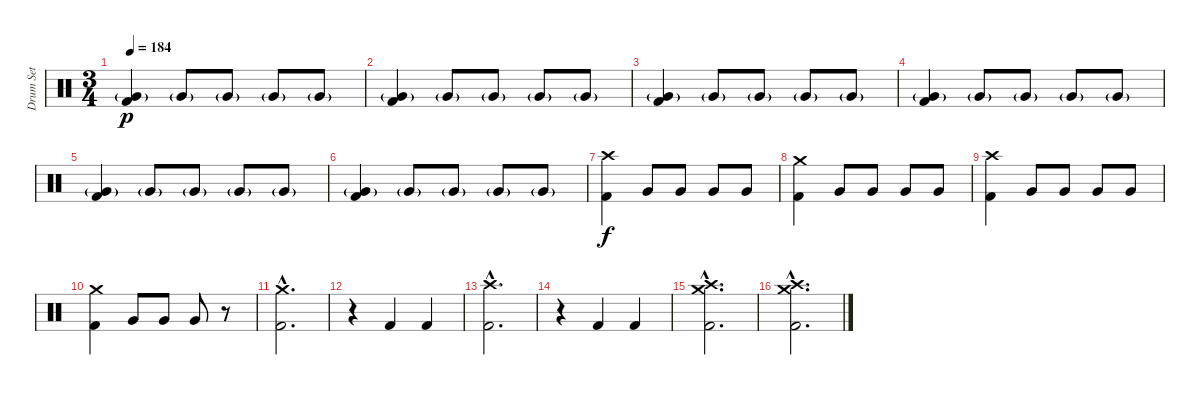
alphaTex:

\track ("Drum Set" "Drum Set") {instrument percussion}
\staff {score}
\articulation defaults
\ts (3 4)
\tempo 184
\clef neutral
\ks c
("Very Low Tom (hit)"{g} "Kick (hit) 2").4{dy p} "Very Low Tom (hit)"{g}.8 "Very Low Tom (hit)"{g}.8 "Very Low Tom (hit)"{g}.8 "Very Low Tom (hit)"{g}.8 |
("Very Low Tom (hit)"{g} "Kick (hit) 2").4 "Very Low Tom (hit)"{g}.8 "Very Low Tom (hit)"{g}.8 "Very Low Tom (hit)"{g}.8 "Very Low Tom (hit)"{g}.8 |
("Very Low Tom (hit)"{g} "Kick (hit) 2").4 "Very Low Tom (hit)"{g}.8 "Very Low Tom (hit)"{g}.8 "Very Low Tom (hit)"{g}.8 "Very Low Tom (hit)"{g}.8 |
("Very Low Tom (hit)"{g} "Kick (hit) 2").4 "Very Low Tom (hit)"{g}.8 "Very Low Tom (hit)"{g}.8 "Very Low Tom (hit)"{g}.8 "Very Low Tom (hit)"{g}.8 |
("Very Low Tom (hit)"{g} "Kick (hit) 2").4 "Very Low Tom (hit)"{g}.8 "Very Low Tom (hit)"{g}.8 "Very Low Tom (hit)"{g}.8 "Very Low Tom (hit)"{g}.8 |
("Very Low Tom (hit)"{g} "Kick (hit) 2").4 "Very Low Tom (hit)"{g}.8 "Very Low Tom (hit)"{g}.8 "Very Low Tom (hit)"{g}.8 "Very Low Tom (hit)"{g}.8 |
("Crash high (hit)" "Kick (hit) 2").4{dy f} "Very Low Tom (hit)".8 "Very Low Tom (hit)".8 "Very Low Tom (hit)".8 "Very Low Tom (hit)".8 |
("Crash medium (hit)" "Kick (hit) 2").4 "Very Low Tom (hit)".8 "Very Low Tom (hit)".8 "Very Low Tom (hit)".8 "Very Low Tom (hit)".8 |
("Crash high (hit)" "Kick (hit) 2").4 "Very Low Tom (hit)".8 "Very Low Tom (hit)".8 "Very Low Tom (hit)".8 "Very Low Tom (hit)".8 |
("Crash medium (hit)" "Kick (hit) 2").4 "Very Low Tom (hit)".8 "Very Low Tom (hit)".8 "Very Low Tom (hit)".8 r.8 |
("Crash medium (hit)"{hac} "Kick (hit) 2"{hac}).2{d} |
r.4 "Kick (hit) 2".4 "Kick (hit) 2".4 |
("Crash high (hit)"{hac} "Kick (hit) 2"{hac}).2{d} |
r.4 "Kick (hit) 2".4 "Kick (hit) 2".4 |
("Crash medium (hit)"{hac} "Crash high (hit)"{hac} "Kick (hit) 2"{hac}).2{d} |
("Crash medium (hit)"{hac} "Crash high (hit)"{hac} "Kick (hit) 2"{hac}).2{d}
